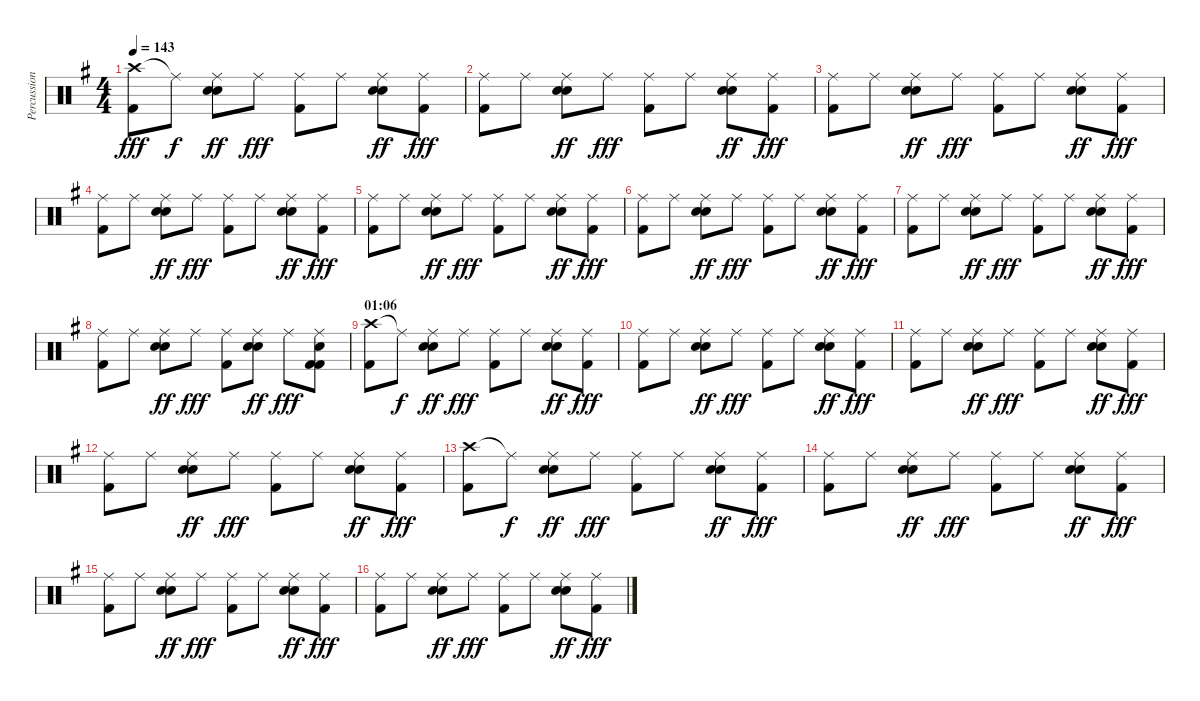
\track ("Percussion" "Percussion") {instrument percussion}
\staff {score}
\articulation defaults
\ts (4 4)
\tempo 143
\clef neutral
\ks g
("Crash high (hit)" "Kick (hit) 2").8{dy fff} "Ride (middle)"{t}.8{dy f} ("Ride (middle)" "Snare (hit) 2" "Electric Snare (hit)").8{dy ff} "Ride (middle)".8{dy fff} ("Ride (middle)" "Kick (hit) 2").8 "Ride (middle)".8 ("Ride (middle)" "Snare (hit) 2" "Electric Snare (hit)").8{dy ff} ("Ride (middle)" "Kick (hit) 2").8{dy fff} |
("Ride (middle)" "Kick (hit) 2").8 "Ride (middle)".8 ("Ride (middle)" "Snare (hit) 2" "Electric Snare (hit)").8{dy ff} "Ride (middle)".8{dy fff} ("Ride (middle)" "Kick (hit) 2").8 "Ride (middle)".8 ("Ride (middle)" "Snare (hit) 2" "Electric Snare (hit)").8{dy ff} ("Ride (middle)" "Kick (hit) 2").8{dy fff} |
("Ride (middle)" "Kick (hit) 2").8 "Ride (middle)".8 ("Ride (middle)" "Snare (hit) 2" "Electric Snare (hit)").8{dy ff} "Ride (middle)".8{dy fff} ("Ride (middle)" "Kick (hit) 2").8 "Ride (middle)".8 ("Ride (middle)" "Snare (hit) 2" "Electric Snare (hit)").8{dy ff} ("Ride (middle)" "Kick (hit) 2").8{dy fff} |
("Ride (middle)" "Kick (hit) 2").8 "Ride (middle)".8 ("Ride (middle)" "Snare (hit) 2" "Electric Snare (hit)").8{dy ff} "Ride (middle)".8{dy fff} ("Ride (middle)" "Kick (hit) 2").8 "Ride (middle)".8 ("Ride (middle)" "Snare (hit) 2" "Electric Snare (hit)").8{dy ff} ("Ride (middle)" "Kick (hit) 2").8{dy fff} |
("Ride (middle)" "Kick (hit) 2").8 "Ride (middle)".8 ("Ride (middle)" "Snare (hit) 2" "Electric Snare (hit)").8{dy ff} "Ride (middle)".8{dy fff} ("Ride (middle)" "Kick (hit) 2").8 "Ride (middle)".8 ("Ride (middle)" "Snare (hit) 2" "Electric Snare (hit)").8{dy ff} ("Ride (middle)" "Kick (hit) 2").8{dy fff} |
("Ride (middle)" "Kick (hit) 2").8 "Ride (middle)".8 ("Ride (middle)" "Snare (hit) 2" "Electric Snare (hit)").8{dy ff} "Ride (middle)".8{dy fff} ("Ride (middle)" "Kick (hit) 2").8 "Ride (middle)".8 ("Ride (middle)" "Snare (hit) 2" "Electric Snare (hit)").8{dy ff} ("Ride (middle)" "Kick (hit) 2").8{dy fff} |
("Ride (middle)" "Kick (hit) 2").8 "Ride (middle)".8 ("Ride (middle)" "Snare (hit) 2" "Electric Snare (hit)").8{dy ff} "Ride (middle)".8{dy fff} ("Ride (middle)" "Kick (hit) 2").8 "Ride (middle)".8 ("Ride (middle)" "Snare (hit) 2" "Electric Snare (hit)").8{dy ff} ("Ride (middle)" "Kick (hit) 2").8{dy fff} |
("Ride (middle)" "Kick (hit) 2").8 "Ride (middle)".8 ("Ride (middle)" "Snare (hit) 2" "Electric Snare (hit)").8{dy ff} "Ride (middle)".8{dy fff} ("Ride (middle)" "Kick (hit) 2").8 ("Ride (middle)" "Snare (hit) 2" "Electric Snare (hit)").8{dy ff} "Ride (middle)".8{dy fff} ("Ride (middle)" "Kick (hit) 2" "Electric Snare (hit)" "Kick (hit) 2").8 |
\section ("" "01:06")
("Crash high (hit)" "Kick (hit) 2").8 "Ride (middle)"{t}.8{dy f} ("Ride (middle)" "Snare (hit) 2" "Electric Snare (hit)").8{dy ff} "Ride (middle)".8{dy fff} ("Ride (middle)" "Kick (hit) 2").8 "Ride (middle)".8 ("Ride (middle)" "Snare (hit) 2" "Electric Snare (hit)").8{dy ff} ("Ride (middle)" "Kick (hit) 2").8{dy fff} |
("Ride (middle)" "Kick (hit) 2").8 "Ride (middle)".8 ("Ride (middle)" "Snare (hit) 2" "Electric Snare (hit)").8{dy ff} "Ride (middle)".8{dy fff} ("Ride (middle)" "Kick (hit) 2").8 "Ride (middle)".8 ("Ride (middle)" "Snare (hit) 2" "Electric Snare (hit)").8{dy ff} ("Ride (middle)" "Kick (hit) 2").8{dy fff} |
("Ride (middle)" "Kick (hit) 2").8 "Ride (middle)".8 ("Ride (middle)" "Snare (hit) 2" "Electric Snare (hit)").8{dy ff} "Ride (middle)".8{dy fff} ("Ride (middle)" "Kick (hit) 2").8 "Ride (middle)".8 ("Ride (middle)" "Snare (hit) 2" "Electric Snare (hit)").8{dy ff} ("Ride (middle)" "Kick (hit) 2").8{dy fff} |
("Ride (middle)" "Kick (hit) 2").8 "Ride (middle)".8 ("Ride (middle)" "Snare (hit) 2" "Electric Snare (hit)").8{dy ff} "Ride (middle)".8{dy fff} ("Ride (middle)" "Kick (hit) 2").8 "Ride (middle)".8 ("Ride (middle)" "Snare (hit) 2" "Electric Snare (hit)").8{dy ff} ("Ride (middle)" "Kick (hit) 2").8{dy fff} |
("Crash high (hit)" "Kick (hit) 2").8 "Ride (middle)"{t}.8{dy f} ("Ride (middle)" "Snare (hit) 2" "Electric Snare (hit)").8{dy ff} "Ride (middle)".8{dy fff} ("Ride (middle)" "Kick (hit) 2").8 "Ride (middle)".8 ("Ride (middle)" "Snare (hit) 2" "Electric Snare (hit)").8{dy ff} ("Ride (middle)" "Kick (hit) 2").8{dy fff} |
("Ride (middle)" "Kick (hit) 2").8 "Ride (middle)".8 ("Ride (middle)" "Snare (hit) 2" "Electric Snare (hit)").8{dy ff} "Ride (middle)".8{dy fff} ("Ride (middle)" "Kick (hit) 2").8 "Ride (middle)".8 ("Ride (middle)" "Snare (hit) 2" "Electric Snare (hit)").8{dy ff} ("Ride (middle)" "Kick (hit) 2").8{dy fff} |
("Ride (middle)" "Kick (hit) 2").8 "Ride (middle)".8 ("Ride (middle)" "Snare (hit) 2" "Electric Snare (hit)").8{dy ff} "Ride (middle)".8{dy fff} ("Ride (middle)" "Kick (hit) 2").8 "Ride (middle)".8 ("Ride (middle)" "Snare (hit) 2" "Electric Snare (hit)").8{dy ff} ("Ride (middle)" "Kick (hit) 2").8{dy fff} |
("Ride (middle)" "Kick (hit) 2").8 "Ride (middle)".8 ("Ride (middle)" "Snare (hit) 2" "Electric Snare (hit)").8{dy ff} "Ride (middle)".8{dy fff} ("Ride (middle)" "Kick (hit) 2").8 "Ride (middle)".8 ("Ride (middle)" "Snare (hit) 2" "Electric Snare (hit)").8{dy ff} ("Ride (middle)" "Kick (hit) 2").8{dy fff}
